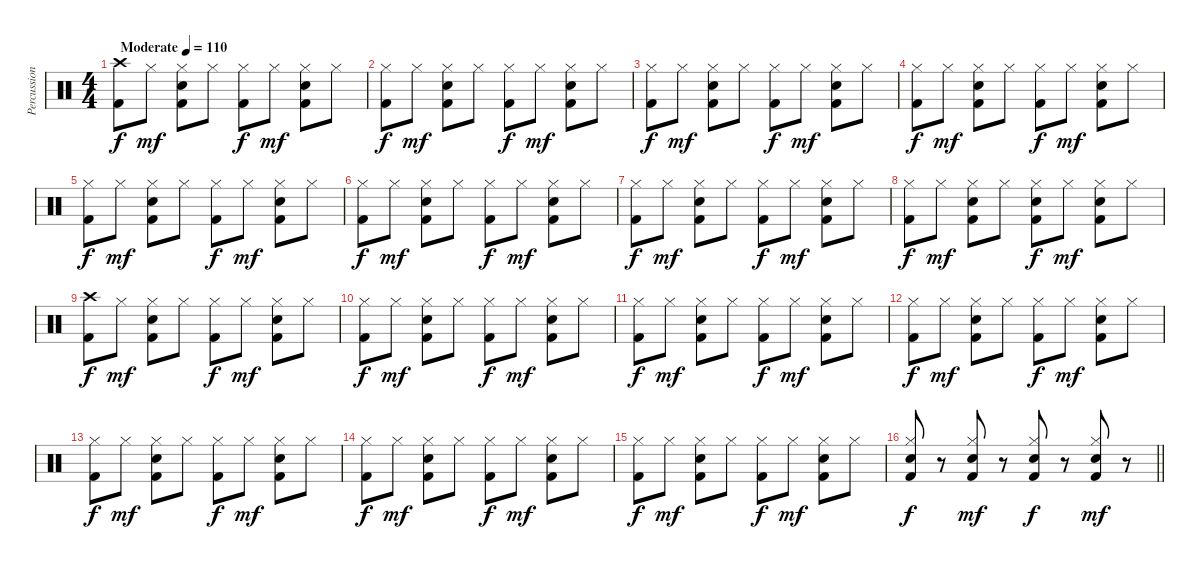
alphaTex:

\track ("Percussion" "Percussion") {instrument percussion}
\staff {score}
\articulation defaults
\ts (4 4)
\tempo (110 "Moderate")
\clef neutral
\ks c
("Crash high (hit)" "Kick (hit) 2").8{dy f} "Hi-Hat (closed)".8{dy mf} ("Hi-Hat (closed)" "Electric Snare (hit)" "Kick (hit) 2").8 "Hi-Hat (closed)".8 ("Hi-Hat (closed)" "Kick (hit) 2").8{dy f} "Hi-Hat (closed)".8{dy mf} ("Hi-Hat (closed)" "Electric Snare (hit)" "Kick (hit) 2").8 "Hi-Hat (closed)".8 |
("Hi-Hat (closed)" "Kick (hit) 2").8{dy f} "Hi-Hat (closed)".8{dy mf} ("Hi-Hat (closed)" "Electric Snare (hit)" "Kick (hit) 2").8 "Hi-Hat (closed)".8 ("Hi-Hat (closed)" "Kick (hit) 2").8{dy f} "Hi-Hat (closed)".8{dy mf} ("Hi-Hat (closed)" "Electric Snare (hit)" "Kick (hit) 2").8 "Hi-Hat (closed)".8 |
("Hi-Hat (closed)" "Kick (hit) 2").8{dy f} "Hi-Hat (closed)".8{dy mf} ("Hi-Hat (closed)" "Electric Snare (hit)" "Kick (hit) 2").8 "Hi-Hat (closed)".8 ("Hi-Hat (closed)" "Kick (hit) 2").8{dy f} "Hi-Hat (closed)".8{dy mf} ("Hi-Hat (closed)" "Electric Snare (hit)" "Kick (hit) 2").8 "Hi-Hat (closed)".8 |
("Hi-Hat (closed)" "Kick (hit) 2").8{dy f} "Hi-Hat (closed)".8{dy mf} ("Hi-Hat (closed)" "Electric Snare (hit)" "Kick (hit) 2").8 "Hi-Hat (closed)".8 ("Hi-Hat (closed)" "Kick (hit) 2").8{dy f} "Hi-Hat (closed)".8{dy mf} ("Hi-Hat (closed)" "Electric Snare (hit)" "Kick (hit) 2").8 "Hi-Hat (closed)".8 |
("Hi-Hat (closed)" "Kick (hit) 2").8{dy f} "Hi-Hat (closed)".8{dy mf} ("Hi-Hat (closed)" "Electric Snare (hit)" "Kick (hit) 2").8 "Hi-Hat (closed)".8 ("Hi-Hat (closed)" "Kick (hit) 2").8{dy f} "Hi-Hat (closed)".8{dy mf} ("Hi-Hat (closed)" "Electric Snare (hit)" "Kick (hit) 2").8 "Hi-Hat (closed)".8 |
("Hi-Hat (closed)" "Kick (hit) 2").8{dy f} "Hi-Hat (closed)".8{dy mf} ("Hi-Hat (closed)" "Electric Snare (hit)" "Kick (hit) 2").8 "Hi-Hat (closed)".8 ("Hi-Hat (closed)" "Kick (hit) 2").8{dy f} "Hi-Hat (closed)".8{dy mf} ("Hi-Hat (closed)" "Electric Snare (hit)" "Kick (hit) 2").8 "Hi-Hat (closed)".8 |
("Hi-Hat (closed)" "Kick (hit) 2").8{dy f} "Hi-Hat (closed)".8{dy mf} ("Hi-Hat (closed)" "Electric Snare (hit)" "Kick (hit) 2").8 "Hi-Hat (closed)".8 ("Hi-Hat (closed)" "Kick (hit) 2").8{dy f} "Hi-Hat (closed)".8{dy mf} ("Hi-Hat (closed)" "Electric Snare (hit)" "Kick (hit) 2").8 "Hi-Hat (closed)".8 |
("Hi-Hat (closed)" "Kick (hit) 2").8{dy f} "Hi-Hat (closed)".8{dy mf} ("Hi-Hat (closed)" "Electric Snare (hit)" "Kick (hit) 2").8 "Hi-Hat (closed)".8 ("Hi-Hat (closed)" "Electric Snare (hit)" "Kick (hit) 2").8{dy f} "Hi-Hat (closed)".8{dy mf} ("Hi-Hat (closed)" "Electric Snare (hit)" "Kick (hit) 2").8 "Hi-Hat (closed)".8 |
("Crash high (hit)" "Kick (hit) 2").8{dy f} "Hi-Hat (closed)".8{dy mf} ("Hi-Hat (closed)" "Electric Snare (hit)" "Kick (hit) 2").8 "Hi-Hat (closed)".8 ("Hi-Hat (closed)" "Kick (hit) 2").8{dy f} "Hi-Hat (closed)".8{dy mf} ("Hi-Hat (closed)" "Electric Snare (hit)" "Kick (hit) 2").8 "Hi-Hat (closed)".8 |
("Hi-Hat (closed)" "Kick (hit) 2").8{dy f} "Hi-Hat (closed)".8{dy mf} ("Hi-Hat (closed)" "Electric Snare (hit)" "Kick (hit) 2").8 "Hi-Hat (closed)".8 ("Hi-Hat (closed)" "Kick (hit) 2").8{dy f} "Hi-Hat (closed)".8{dy mf} ("Hi-Hat (closed)" "Electric Snare (hit)" "Kick (hit) 2").8 "Hi-Hat (closed)".8 |
("Hi-Hat (closed)" "Kick (hit) 2").8{dy f} "Hi-Hat (closed)".8{dy mf} ("Hi-Hat (closed)" "Electric Snare (hit)" "Kick (hit) 2").8 "Hi-Hat (closed)".8 ("Hi-Hat (closed)" "Kick (hit) 2").8{dy f} "Hi-Hat (closed)".8{dy mf} ("Hi-Hat (closed)" "Electric Snare (hit)" "Kick (hit) 2").8 "Hi-Hat (closed)".8 |
("Hi-Hat (closed)" "Kick (hit) 2").8{dy f} "Hi-Hat (closed)".8{dy mf} ("Hi-Hat (closed)" "Electric Snare (hit)" "Kick (hit) 2").8 "Hi-Hat (closed)".8 ("Hi-Hat (closed)" "Kick (hit) 2").8{dy f} "Hi-Hat (closed)".8{dy mf} ("Hi-Hat (closed)" "Electric Snare (hit)" "Kick (hit) 2").8 "Hi-Hat (closed)".8 |
("Hi-Hat (closed)" "Kick (hit) 2").8{dy f} "Hi-Hat (closed)".8{dy mf} ("Hi-Hat (closed)" "Electric Snare (hit)" "Kick (hit) 2").8 "Hi-Hat (closed)".8 ("Hi-Hat (closed)" "Kick (hit) 2").8{dy f} "Hi-Hat (closed)".8{dy mf} ("Hi-Hat (closed)" "Electric Snare (hit)" "Kick (hit) 2").8 "Hi-Hat (closed)".8 |
("Hi-Hat (closed)" "Kick (hit) 2").8{dy f} "Hi-Hat (closed)".8{dy mf} ("Hi-Hat (closed)" "Electric Snare (hit)" "Kick (hit) 2").8 "Hi-Hat (closed)".8 ("Hi-Hat (closed)" "Kick (hit) 2").8{dy f} "Hi-Hat (closed)".8{dy mf} ("Hi-Hat (closed)" "Electric Snare (hit)" "Kick (hit) 2").8 "Hi-Hat (closed)".8 |
("Hi-Hat (closed)" "Kick (hit) 2").8{dy f} "Hi-Hat (closed)".8{dy mf} ("Hi-Hat (closed)" "Electric Snare (hit)" "Kick (hit) 2").8 "Hi-Hat (closed)".8 ("Hi-Hat (closed)" "Kick (hit) 2").8{dy f} "Hi-Hat (closed)".8{dy mf} ("Hi-Hat (closed)" "Electric Snare (hit)" "Kick (hit) 2").8 "Hi-Hat (closed)".8 |
\barLineRight lightlight
("Hi-Hat (closed)" "Electric Snare (hit)" "Kick (hit) 2").8{dy f} r.8 ("Hi-Hat (closed)" "Electric Snare (hit)" "Kick (hit) 2").8{dy mf} r.8 ("Hi-Hat (closed)" "Electric Snare (hit)" "Kick (hit) 2").8{dy f} r.8 ("Hi-Hat (closed)" "Electric Snare (hit)" "Kick (hit) 2").8{dy mf} r.8
